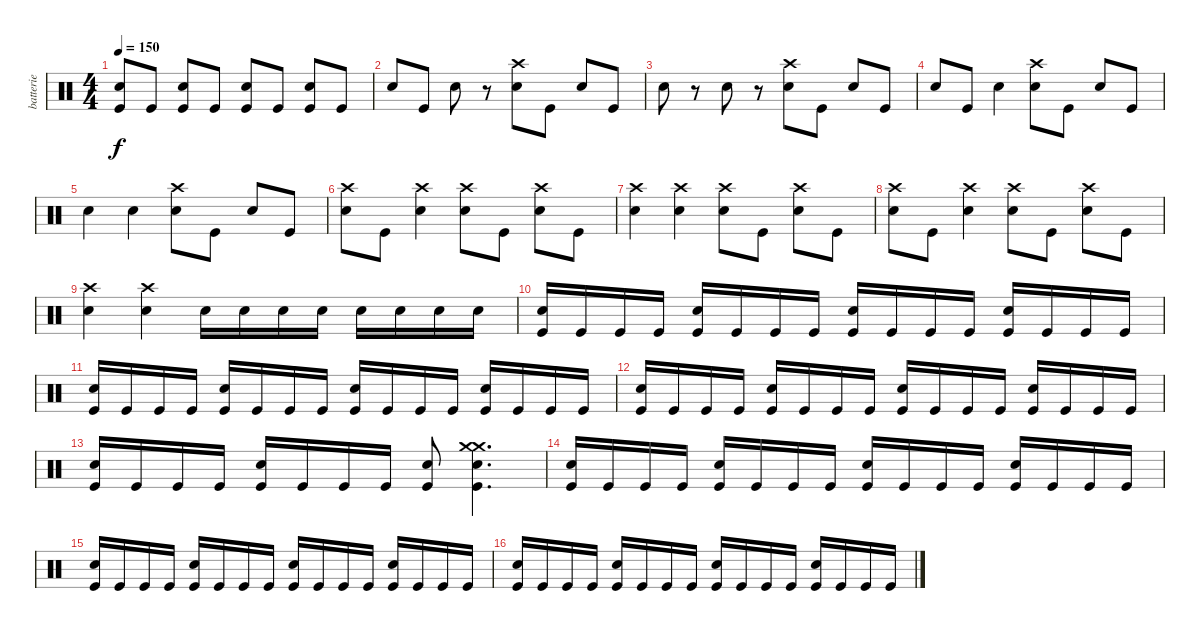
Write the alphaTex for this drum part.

\track ("batterie" "batterie") {instrument percussion}
\staff {score}
\articulation defaults
\ts (4 4)
\tempo 150
\clef neutral
\ks c
("Snare (hit) 2" "Kick (hit)").8{dy f} "Kick (hit)".8 ("Snare (hit) 2" "Kick (hit)").8 "Kick (hit)".8 ("Snare (hit) 2" "Kick (hit)").8 "Kick (hit)".8 ("Snare (hit) 2" "Kick (hit)").8 "Kick (hit)".8 |
"Snare (hit) 2".8 "Kick (hit)".8 "Snare (hit) 2".8 r.8 ("Crash high (hit)" "Snare (hit) 2").8 "Kick (hit)".8 "Snare (hit) 2".8 "Kick (hit)".8 |
"Snare (hit) 2".8 r.8 "Snare (hit) 2".8 r.8 ("Crash high (hit)" "Snare (hit) 2").8 "Kick (hit)".8 "Snare (hit) 2".8 "Kick (hit)".8 |
"Snare (hit) 2".8 "Kick (hit)".8 "Snare (hit) 2".4 ("Crash high (hit)" "Snare (hit) 2").8 "Kick (hit)".8 "Snare (hit) 2".8 "Kick (hit)".8 |
"Snare (hit) 2".4 "Snare (hit) 2".4 ("Crash high (hit)" "Snare (hit) 2").8 "Kick (hit)".8 "Snare (hit) 2".8 "Kick (hit)".8 |
("Crash high (hit)" "Snare (hit) 2").8 "Kick (hit)".8 ("Crash high (hit)" "Snare (hit) 2").4 ("Crash high (hit)" "Snare (hit) 2").8 "Kick (hit)".8 ("Crash high (hit)" "Snare (hit) 2").8 "Kick (hit)".8 |
("Crash high (hit)" "Snare (hit) 2").4 ("Crash high (hit)" "Snare (hit) 2").4 ("Crash high (hit)" "Snare (hit) 2").8 "Kick (hit)".8 ("Crash high (hit)" "Snare (hit) 2").8 "Kick (hit)".8 |
("Crash high (hit)" "Snare (hit) 2").8 "Kick (hit)".8 ("Crash high (hit)" "Snare (hit) 2").4 ("Crash high (hit)" "Snare (hit) 2").8 "Kick (hit)".8 ("Crash high (hit)" "Snare (hit) 2").8 "Kick (hit)".8 |
("Crash high (hit)" "Snare (hit) 2").4 ("Crash high (hit)" "Snare (hit) 2").4 "Snare (hit) 2".16 "Snare (hit) 2".16 "Snare (hit) 2".16 "Snare (hit) 2".16 "Snare (hit) 2".16 "Snare (hit) 2".16 "Snare (hit) 2".16 "Snare (hit) 2".16 |
("Snare (hit) 2" "Kick (hit)").16 "Kick (hit)".16 "Kick (hit)".16 "Kick (hit)".16 ("Snare (hit) 2" "Kick (hit)").16 "Kick (hit)".16 "Kick (hit)".16 "Kick (hit)".16 ("Snare (hit) 2" "Kick (hit)").16 "Kick (hit)".16 "Kick (hit)".16 "Kick (hit)".16 ("Snare (hit) 2" "Kick (hit)").16 "Kick (hit)".16 "Kick (hit)".16 "Kick (hit)".16 |
("Snare (hit) 2" "Kick (hit)").16 "Kick (hit)".16 "Kick (hit)".16 "Kick (hit)".16 ("Snare (hit) 2" "Kick (hit)").16 "Kick (hit)".16 "Kick (hit)".16 "Kick (hit)".16 ("Snare (hit) 2" "Kick (hit)").16 "Kick (hit)".16 "Kick (hit)".16 "Kick (hit)".16 ("Snare (hit) 2" "Kick (hit)").16 "Kick (hit)".16 "Kick (hit)".16 "Kick (hit)".16 |
("Snare (hit) 2" "Kick (hit)").16 "Kick (hit)".16 "Kick (hit)".16 "Kick (hit)".16 ("Snare (hit) 2" "Kick (hit)").16 "Kick (hit)".16 "Kick (hit)".16 "Kick (hit)".16 ("Snare (hit) 2" "Kick (hit)").16 "Kick (hit)".16 "Kick (hit)".16 "Kick (hit)".16 ("Snare (hit) 2" "Kick (hit)").16 "Kick (hit)".16 "Kick (hit)".16 "Kick (hit)".16 |
("Snare (hit) 2" "Kick (hit)").16 "Kick (hit)".16 "Kick (hit)".16 "Kick (hit)".16 ("Snare (hit) 2" "Kick (hit)").16 "Kick (hit)".16 "Kick (hit)".16 "Kick (hit)".16 ("Snare (hit) 2" "Kick (hit)").8 ("Crash medium (hit)" "Crash medium (hit)" "Snare (hit) 2" "Kick (hit)").4{d} |
("Snare (hit) 2" "Kick (hit)").16 "Kick (hit)".16 "Kick (hit)".16 "Kick (hit)".16 ("Snare (hit) 2" "Kick (hit)").16 "Kick (hit)".16 "Kick (hit)".16 "Kick (hit)".16 ("Snare (hit) 2" "Kick (hit)").16 "Kick (hit)".16 "Kick (hit)".16 "Kick (hit)".16 ("Snare (hit) 2" "Kick (hit)").16 "Kick (hit)".16 "Kick (hit)".16 "Kick (hit)".16 |
("Snare (hit) 2" "Kick (hit)").16 "Kick (hit)".16 "Kick (hit)".16 "Kick (hit)".16 ("Snare (hit) 2" "Kick (hit)").16 "Kick (hit)".16 "Kick (hit)".16 "Kick (hit)".16 ("Snare (hit) 2" "Kick (hit)").16 "Kick (hit)".16 "Kick (hit)".16 "Kick (hit)".16 ("Snare (hit) 2" "Kick (hit)").16 "Kick (hit)".16 "Kick (hit)".16 "Kick (hit)".16 |
("Snare (hit) 2" "Kick (hit)").16 "Kick (hit)".16 "Kick (hit)".16 "Kick (hit)".16 ("Snare (hit) 2" "Kick (hit)").16 "Kick (hit)".16 "Kick (hit)".16 "Kick (hit)".16 ("Snare (hit) 2" "Kick (hit)").16 "Kick (hit)".16 "Kick (hit)".16 "Kick (hit)".16 ("Snare (hit) 2" "Kick (hit)").16 "Kick (hit)".16 "Kick (hit)".16 "Kick (hit)".16
